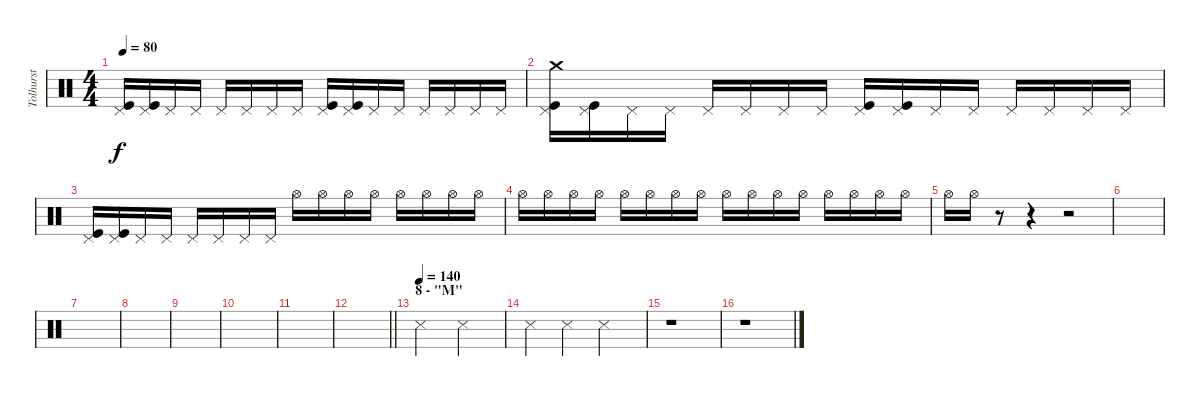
\track ("Tolhurst" "Tolhurst") {instrument percussion}
\staff {score}
\articulation defaults
\ts (4 4)
\tempo 80
\clef neutral
\ks c
("Pedal Hi-Hat (hit)" "Kick (hit)").16{dy f} ("Pedal Hi-Hat (hit)" "Kick (hit)").16 "Pedal Hi-Hat (hit)".16 "Pedal Hi-Hat (hit)".16 "Pedal Hi-Hat (hit)".16 "Pedal Hi-Hat (hit)".16 "Pedal Hi-Hat (hit)".16 "Pedal Hi-Hat (hit)".16 ("Pedal Hi-Hat (hit)" "Kick (hit)").16 ("Pedal Hi-Hat (hit)" "Kick (hit)").16 "Pedal Hi-Hat (hit)".16 "Pedal Hi-Hat (hit)".16 "Pedal Hi-Hat (hit)".16 "Pedal Hi-Hat (hit)".16 "Pedal Hi-Hat (hit)".16 "Pedal Hi-Hat (hit)".16 |
("Pedal Hi-Hat (hit)" "Kick (hit)" "Crash medium (hit)").16 ("Pedal Hi-Hat (hit)" "Kick (hit)").16 "Pedal Hi-Hat (hit)".16 "Pedal Hi-Hat (hit)".16 "Pedal Hi-Hat (hit)".16 "Pedal Hi-Hat (hit)".16 "Pedal Hi-Hat (hit)".16 "Pedal Hi-Hat (hit)".16 ("Pedal Hi-Hat (hit)" "Kick (hit)").16 ("Pedal Hi-Hat (hit)" "Kick (hit)").16 "Pedal Hi-Hat (hit)".16 "Pedal Hi-Hat (hit)".16 "Pedal Hi-Hat (hit)".16 "Pedal Hi-Hat (hit)".16 "Pedal Hi-Hat (hit)".16 "Pedal Hi-Hat (hit)".16 |
("Pedal Hi-Hat (hit)" "Kick (hit)").16 ("Pedal Hi-Hat (hit)" "Kick (hit)").16 "Pedal Hi-Hat (hit)".16 "Pedal Hi-Hat (hit)".16 "Pedal Hi-Hat (hit)".16 "Pedal Hi-Hat (hit)".16 "Pedal Hi-Hat (hit)".16 "Pedal Hi-Hat (hit)".16 "Hi-Hat (open)".16 "Hi-Hat (open)".16 "Hi-Hat (open)".16 "Hi-Hat (open)".16 "Hi-Hat (open)".16 "Hi-Hat (open)".16 "Hi-Hat (open)".16 "Hi-Hat (open)".16 |
"Hi-Hat (open)".16 "Hi-Hat (open)".16 "Hi-Hat (open)".16 "Hi-Hat (open)".16 "Hi-Hat (open)".16 "Hi-Hat (open)".16 "Hi-Hat (open)".16 "Hi-Hat (open)".16 "Hi-Hat (open)".16 "Hi-Hat (open)".16 "Hi-Hat (open)".16 "Hi-Hat (open)".16 "Hi-Hat (open)".16 "Hi-Hat (open)".16 "Hi-Hat (open)".16 "Hi-Hat (open)".16 |
"Hi-Hat (open)".16 "Hi-Hat (open)".16 r.8 r.4 r.2 |
|
|
|
|
|
|
\barLineRight lightlight
|
\section ("" "8 - \"M\"")
\tempo (140)
"Metronome (hit)".2 "Metronome (hit)".2 |
"Metronome (hit)".4 "Metronome (hit)".4 "Metronome (hit)".2 |
r.1 |
r.1
